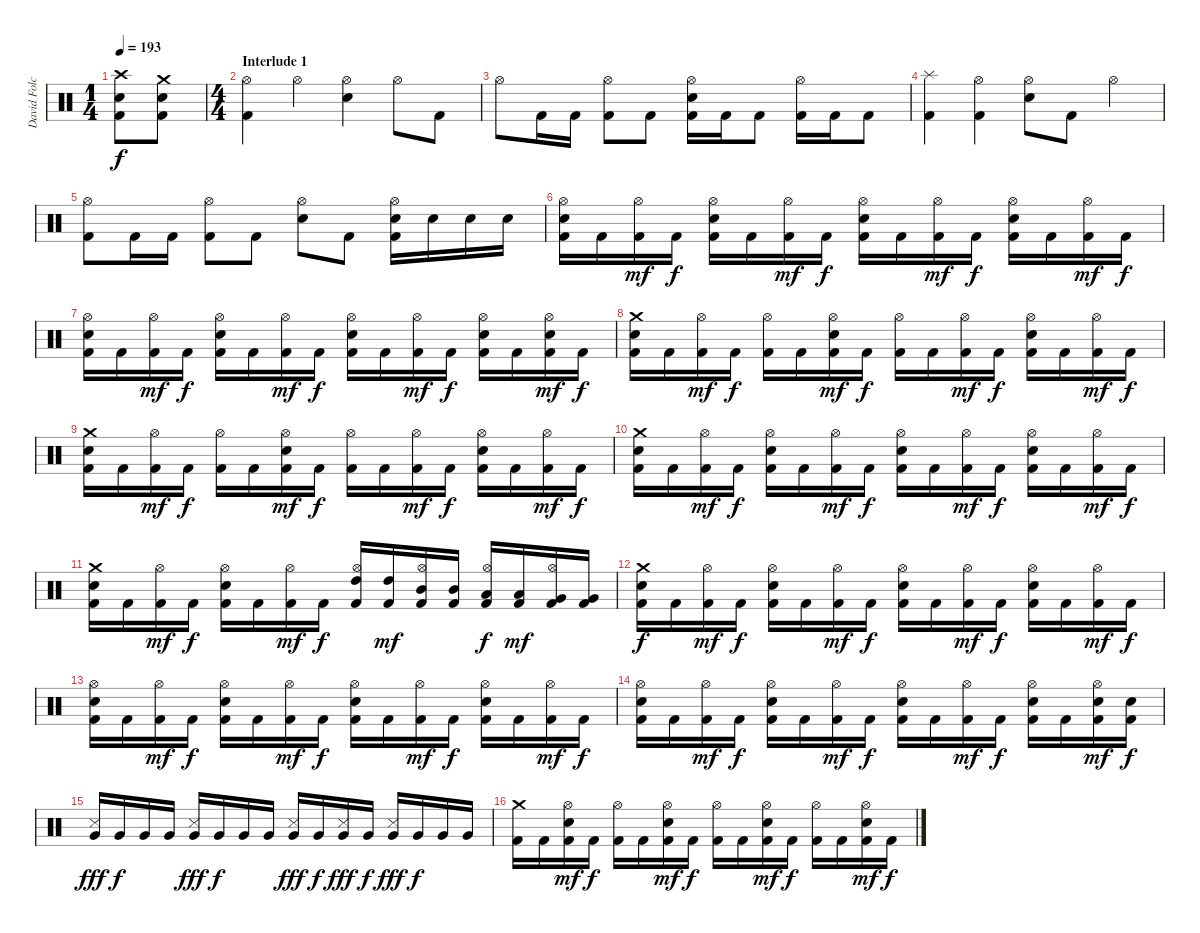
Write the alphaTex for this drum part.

\track ("David Folchitto" "David Folc") {instrument percussion}
\staff {score}
\articulation defaults
\ts (1 4)
\tempo 193
\clef neutral
\ks c
("Crash high (hit)" "Snare (hit) 2" "Kick (hit) 2").8{dy f} ("Crash medium (hit)" "Snare (hit) 2" "Kick (hit) 2").8 |
\ts (4 4)
\section ("" "Interlude 1")
("Hi-Hat (open)" "Kick (hit) 2").4 "Hi-Hat (open)".4 ("Hi-Hat (open)" "Snare (hit) 2").4 "Hi-Hat (open)".8 "Kick (hit) 2".8 |
"Hi-Hat (open)".8 "Kick (hit) 2".16 "Kick (hit) 2".16 ("Hi-Hat (open)" "Kick (hit) 2").8 "Kick (hit) 2".8 ("Hi-Hat (open)" "Snare (hit) 2" "Kick (hit) 2").16 "Kick (hit) 2".16 "Kick (hit) 2".8 ("Hi-Hat (open)" "Kick (hit) 2").16 "Kick (hit) 2".16 "Kick (hit) 2".8 |
("Splash (hit)" "Kick (hit) 2").4 ("Hi-Hat (open)" "Kick (hit) 2").4 ("Hi-Hat (open)" "Snare (hit) 2").8 "Kick (hit) 2".8 "Hi-Hat (open)".4 |
("Hi-Hat (open)" "Kick (hit) 2").8 "Kick (hit) 2".16 "Kick (hit) 2".16 ("Hi-Hat (open)" "Kick (hit) 2").8 "Kick (hit) 2".8 ("Hi-Hat (open)" "Snare (hit) 2").8 "Kick (hit) 2".8 ("Hi-Hat (open)" "Snare (hit) 2" "Kick (hit) 2").16 "Snare (hit) 2".16 "Snare (hit) 2".16 "Snare (hit) 2".16 |
("Hi-Hat (open)" "Snare (hit) 2" "Kick (hit) 2").16 "Kick (hit) 2".16 ("Hi-Hat (open)" "Kick (hit) 2").16{dy mf} "Kick (hit) 2".16{dy f} ("Hi-Hat (open)" "Snare (hit) 2" "Kick (hit) 2").16 "Kick (hit) 2".16 ("Hi-Hat (open)" "Kick (hit) 2").16{dy mf} "Kick (hit) 2".16{dy f} ("Hi-Hat (open)" "Snare (hit) 2" "Kick (hit) 2").16 "Kick (hit) 2".16 ("Hi-Hat (open)" "Kick (hit) 2").16{dy mf} "Kick (hit) 2".16{dy f} ("Hi-Hat (open)" "Snare (hit) 2" "Kick (hit) 2").16 "Kick (hit) 2".16 ("Hi-Hat (open)" "Kick (hit) 2").16{dy mf} "Kick (hit) 2".16{dy f} |
("Hi-Hat (open)" "Snare (hit) 2" "Kick (hit) 2").16 "Kick (hit) 2".16 ("Hi-Hat (open)" "Kick (hit) 2").16{dy mf} "Kick (hit) 2".16{dy f} ("Hi-Hat (open)" "Snare (hit) 2" "Kick (hit) 2").16 "Kick (hit) 2".16 ("Hi-Hat (open)" "Kick (hit) 2").16{dy mf} "Kick (hit) 2".16{dy f} ("Hi-Hat (open)" "Snare (hit) 2" "Kick (hit) 2").16 "Kick (hit) 2".16 ("Hi-Hat (open)" "Kick (hit) 2").16{dy mf} "Kick (hit) 2".16{dy f} ("Hi-Hat (open)" "Snare (hit) 2" "Kick (hit) 2").16 "Kick (hit) 2".16 ("Hi-Hat (open)" "Snare (hit) 2" "Kick (hit) 2").16{dy mf} "Kick (hit) 2".16{dy f} |
("Crash medium (hit)" "Snare (hit) 2" "Kick (hit) 2").16 "Kick (hit) 2".16 ("Hi-Hat (open)" "Kick (hit) 2").16{dy mf} "Kick (hit) 2".16{dy f} ("Hi-Hat (open)" "Kick (hit) 2").16 "Kick (hit) 2".16 ("Hi-Hat (open)" "Snare (hit) 2" "Kick (hit) 2").16{dy mf} "Kick (hit) 2".16{dy f} ("Hi-Hat (open)" "Kick (hit) 2").16 "Kick (hit) 2".16 ("Hi-Hat (open)" "Kick (hit) 2").16{dy mf} "Kick (hit) 2".16{dy f} ("Hi-Hat (open)" "Snare (hit) 2" "Kick (hit) 2").16 "Kick (hit) 2".16 ("Hi-Hat (open)" "Kick (hit) 2").16{dy mf} "Kick (hit) 2".16{dy f} |
("Crash medium (hit)" "Snare (hit) 2" "Kick (hit) 2").16 "Kick (hit) 2".16 ("Hi-Hat (open)" "Kick (hit) 2").16{dy mf} "Kick (hit) 2".16{dy f} ("Hi-Hat (open)" "Kick (hit) 2").16 "Kick (hit) 2".16 ("Hi-Hat (open)" "Snare (hit) 2" "Kick (hit) 2").16{dy mf} "Kick (hit) 2".16{dy f} ("Hi-Hat (open)" "Kick (hit) 2").16 "Kick (hit) 2".16 ("Hi-Hat (open)" "Kick (hit) 2").16{dy mf} "Kick (hit) 2".16{dy f} ("Hi-Hat (open)" "Snare (hit) 2" "Kick (hit) 2").16 "Kick (hit) 2".16 ("Hi-Hat (open)" "Kick (hit) 2").16{dy mf} "Kick (hit) 2".16{dy f} |
("Crash medium (hit)" "Snare (hit) 2" "Kick (hit) 2").16 "Kick (hit) 2".16 ("Hi-Hat (open)" "Kick (hit) 2").16{dy mf} "Kick (hit) 2".16{dy f} ("Hi-Hat (open)" "Snare (hit) 2" "Kick (hit) 2").16 "Kick (hit) 2".16 ("Hi-Hat (open)" "Kick (hit) 2").16{dy mf} "Kick (hit) 2".16{dy f} ("Hi-Hat (open)" "Snare (hit) 2" "Kick (hit) 2").16 "Kick (hit) 2".16 ("Hi-Hat (open)" "Kick (hit) 2").16{dy mf} "Kick (hit) 2".16{dy f} ("Hi-Hat (open)" "Snare (hit) 2" "Kick (hit) 2").16 "Kick (hit) 2".16 ("Hi-Hat (open)" "Kick (hit) 2").16{dy mf} "Kick (hit) 2".16{dy f} |
("Crash medium (hit)" "Snare (hit) 2" "Kick (hit) 2").16 "Kick (hit) 2".16 ("Hi-Hat (open)" "Kick (hit) 2").16{dy mf} "Kick (hit) 2".16{dy f} ("Hi-Hat (open)" "Snare (hit) 2" "Kick (hit) 2").16 "Kick (hit) 2".16 ("Hi-Hat (open)" "Kick (hit) 2").16{dy mf} "Kick (hit) 2".16{dy f} ("Hi-Hat (open)" "High Tom (hit)" "Kick (hit) 2").16 ("High Tom (hit)" "Kick (hit) 2").16{dy mf} ("Hi-Hat (open)" "Mid Tom (hit)" "Kick (hit) 2").16 ("Mid Tom (hit)" "Kick (hit) 2").16 ("Hi-Hat (open)" "Low Tom (hit)" "Kick (hit) 2").16{dy f} ("Low Tom (hit)" "Kick (hit) 2").16{dy mf} ("Hi-Hat (open)" "Very Low Tom (hit)" "Kick (hit) 2").16 ("Very Low Tom (hit)" "Kick (hit) 2").16 |
("Crash medium (hit)" "Snare (hit) 2" "Kick (hit) 2").16{dy f} "Kick (hit) 2".16 ("Hi-Hat (open)" "Kick (hit) 2").16{dy mf} "Kick (hit) 2".16{dy f} ("Hi-Hat (open)" "Snare (hit) 2" "Kick (hit) 2").16 "Kick (hit) 2".16 ("Hi-Hat (open)" "Kick (hit) 2").16{dy mf} "Kick (hit) 2".16{dy f} ("Hi-Hat (open)" "Snare (hit) 2" "Kick (hit) 2").16 "Kick (hit) 2".16 ("Hi-Hat (open)" "Kick (hit) 2").16{dy mf} "Kick (hit) 2".16{dy f} ("Hi-Hat (open)" "Snare (hit) 2" "Kick (hit) 2").16 "Kick (hit) 2".16 ("Hi-Hat (open)" "Kick (hit) 2").16{dy mf} "Kick (hit) 2".16{dy f} |
("Hi-Hat (open)" "Snare (hit) 2" "Kick (hit) 2").16 "Kick (hit) 2".16 ("Hi-Hat (open)" "Kick (hit) 2").16{dy mf} "Kick (hit) 2".16{dy f} ("Hi-Hat (open)" "Snare (hit) 2" "Kick (hit) 2").16 "Kick (hit) 2".16 ("Hi-Hat (open)" "Kick (hit) 2").16{dy mf} "Kick (hit) 2".16{dy f} ("Hi-Hat (open)" "Snare (hit) 2" "Kick (hit) 2").16 "Kick (hit) 2".16 ("Hi-Hat (open)" "Kick (hit) 2").16{dy mf} "Kick (hit) 2".16{dy f} ("Hi-Hat (open)" "Snare (hit) 2" "Kick (hit) 2").16 "Kick (hit) 2".16 ("Hi-Hat (open)" "Kick (hit) 2").16{dy mf} "Kick (hit) 2".16{dy f} |
("Hi-Hat (open)" "Snare (hit) 2" "Kick (hit) 2").16 "Kick (hit) 2".16 ("Hi-Hat (open)" "Kick (hit) 2").16{dy mf} "Kick (hit) 2".16{dy f} ("Hi-Hat (open)" "Snare (hit) 2" "Kick (hit) 2").16 "Kick (hit) 2".16 ("Hi-Hat (open)" "Kick (hit) 2").16{dy mf} "Kick (hit) 2".16{dy f} ("Hi-Hat (open)" "Snare (hit) 2" "Kick (hit) 2").16 "Kick (hit) 2".16 ("Hi-Hat (open)" "Kick (hit) 2").16{dy mf} "Kick (hit) 2".16{dy f} ("Hi-Hat (open)" "Snare (hit) 2" "Kick (hit) 2").16 "Kick (hit) 2".16 ("Hi-Hat (open)" "Snare (hit) 2" "Kick (hit) 2").16{dy mf} ("Snare (hit) 2" "Kick (hit) 2").16{dy f} |
("Very Low Tom (hit)" "Snare (side stick) 3").16{dy fff} "Very Low Tom (hit)".16{dy f} "Very Low Tom (hit)".16 "Very Low Tom (hit)".16 ("Very Low Tom (hit)" "Snare (side stick) 3").16{dy fff} "Very Low Tom (hit)".16{dy f} "Very Low Tom (hit)".16 "Very Low Tom (hit)".16 ("Very Low Tom (hit)" "Snare (side stick) 3").16{dy fff} "Very Low Tom (hit)".16{dy f} ("Very Low Tom (hit)" "Snare (side stick) 3").16{dy fff} "Very Low Tom (hit)".16{dy f} ("Very Low Tom (hit)" "Snare (side stick) 3").16{dy fff} "Very Low Tom (hit)".16{dy f} "Very Low Tom (hit)".16 "Very Low Tom (hit)".16 |
("Crash medium (hit)" "Kick (hit) 2").16 "Kick (hit) 2".16 ("Hi-Hat (open)" "Snare (hit) 2" "Kick (hit) 2").16{dy mf} "Kick (hit) 2".16{dy f} ("Hi-Hat (open)" "Kick (hit) 2").16 "Kick (hit) 2".16 ("Hi-Hat (open)" "Snare (hit) 2" "Kick (hit) 2").16{dy mf} "Kick (hit) 2".16{dy f} ("Hi-Hat (open)" "Kick (hit) 2").16 "Kick (hit) 2".16 ("Hi-Hat (open)" "Snare (hit) 2" "Kick (hit) 2").16{dy mf} "Kick (hit) 2".16{dy f} ("Hi-Hat (open)" "Kick (hit) 2").16 "Kick (hit) 2".16 ("Hi-Hat (open)" "Snare (hit) 2" "Kick (hit) 2").16{dy mf} "Kick (hit) 2".16{dy f}
